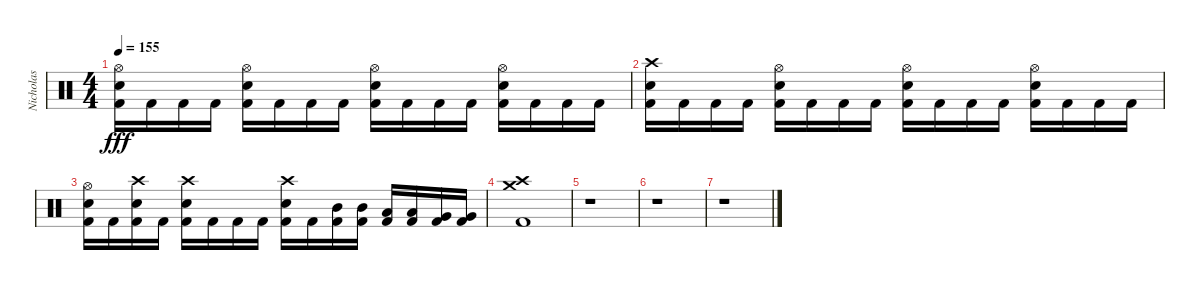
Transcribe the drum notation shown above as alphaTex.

\track ("Nicholas" "Nicholas") {instrument percussion}
\staff {score}
\articulation defaults
\ts (4 4)
\tempo 155
\clef neutral
\ks c
("Hi-Hat (open)" "Electric Snare (hit)" "Kick (hit) 2").16{dy fff} "Kick (hit) 2".16 "Kick (hit) 2".16 "Kick (hit) 2".16 ("Hi-Hat (open)" "Electric Snare (hit)" "Kick (hit) 2").16 "Kick (hit) 2".16 "Kick (hit) 2".16 "Kick (hit) 2".16 ("Hi-Hat (open)" "Electric Snare (hit)" "Kick (hit) 2").16 "Kick (hit) 2".16 "Kick (hit) 2".16 "Kick (hit) 2".16 ("Hi-Hat (open)" "Electric Snare (hit)" "Kick (hit) 2").16 "Kick (hit) 2".16 "Kick (hit) 2".16 "Kick (hit) 2".16 |
("Crash high (hit)" "Electric Snare (hit)" "Kick (hit) 2").16 "Kick (hit) 2".16 "Kick (hit) 2".16 "Kick (hit) 2".16 ("Hi-Hat (open)" "Electric Snare (hit)" "Kick (hit) 2").16 "Kick (hit) 2".16 "Kick (hit) 2".16 "Kick (hit) 2".16 ("Hi-Hat (open)" "Electric Snare (hit)" "Kick (hit) 2").16 "Kick (hit) 2".16 "Kick (hit) 2".16 "Kick (hit) 2".16 ("Hi-Hat (open)" "Electric Snare (hit)" "Kick (hit) 2").16 "Kick (hit) 2".16 "Kick (hit) 2".16 "Kick (hit) 2".16 |
("Hi-Hat (open)" "Electric Snare (hit)" "Kick (hit) 2").16 "Kick (hit) 2".16 ("Crash high (hit)" "Electric Snare (hit)" "Kick (hit) 2").16 "Kick (hit) 2".16 ("Crash high (hit)" "Electric Snare (hit)" "Kick (hit) 2").16 "Kick (hit) 2".16 "Kick (hit) 2".16 "Kick (hit) 2".16 ("Crash high (hit)" "Electric Snare (hit)" "Kick (hit) 2").16 "Kick (hit) 2".16 ("Mid Tom (hit)" "Kick (hit) 2").16 ("Mid Tom (hit)" "Kick (hit) 2").16 ("Low Tom (hit)" "Kick (hit) 2").16 ("Low Tom (hit)" "Kick (hit) 2").16 ("Very Low Tom (hit)" "Kick (hit) 2").16 ("Very Low Tom (hit)" "Kick (hit) 2").16 |
("Crash medium (hit)" "Crash high (hit)" "Kick (hit) 2").1 |
r.1 |
r.1 |
r.1
